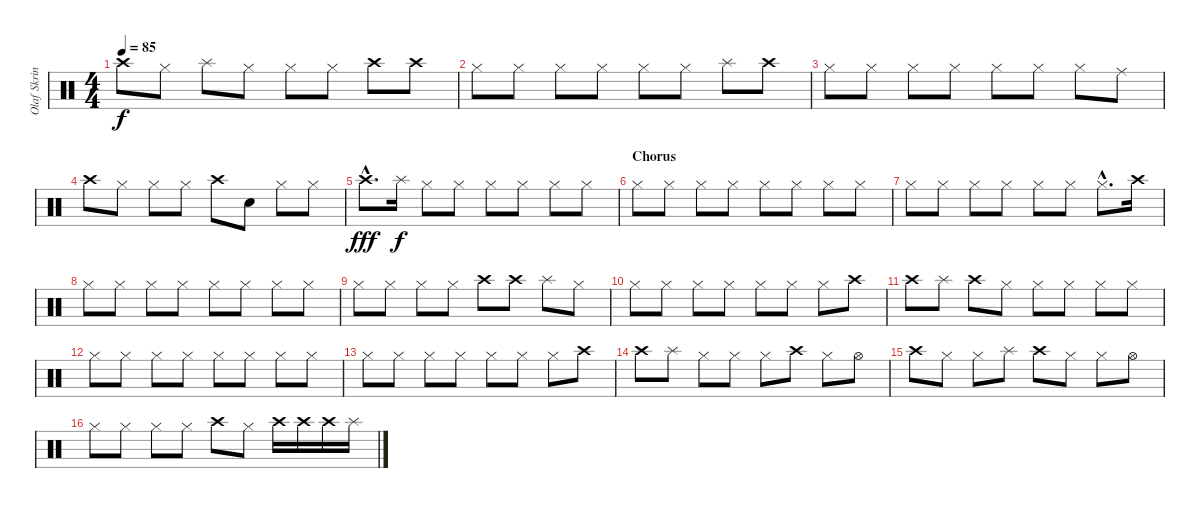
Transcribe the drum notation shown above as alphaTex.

\track ("Olaf Skrinde (Drums)" "Olaf Skrin") {instrument percussion}
\staff {score}
\articulation defaults
\ts (4 4)
\tempo 85
\clef neutral
\ks c "Crash high (hit)".8{dy f} "Hi-Hat (closed)".8 "Splash (hit)".8 "Hi-Hat (closed)".8 "Hi-Hat (closed)".8 "Hi-Hat (closed)".8 "Crash high (hit)".8 "Crash high (hit)".8
|
"Hi-Hat (closed)".8 "Hi-Hat (closed)".8 "Hi-Hat (closed)".8 "Hi-Hat (closed)".8 "Hi-Hat (closed)".8 "Hi-Hat (closed)".8 "Splash (hit)".8 "Crash high (hit)".8 |
"Hi-Hat (closed)".8 "Hi-Hat (closed)".8 "Hi-Hat (closed)".8 "Hi-Hat (closed)".8 "Hi-Hat (closed)".8 "Hi-Hat (closed)".8 "Hi-Hat (closed)".8 "Ride (middle)".8 |
"Crash high (hit)".8 "Hi-Hat (closed)".8 "Hi-Hat (closed)".8 "Hi-Hat (closed)".8 "Crash high (hit)".8 "Hand Clap (hit)".8 "Hi-Hat (closed)".8 "Hi-Hat (closed)".8 |
"Crash high (hit)"{hac}.8{d dy fff} "Splash (hit)".16{dy f} "Hi-Hat (closed)".8 "Hi-Hat (closed)".8 "Hi-Hat (closed)".8 "Hi-Hat (closed)".8 "Hi-Hat (closed)".8 "Hi-Hat (closed)".8 |
\section ("" "Chorus")
"Hi-Hat (closed)".8 "Hi-Hat (closed)".8 "Hi-Hat (closed)".8 "Hi-Hat (closed)".8 "Hi-Hat (closed)".8 "Hi-Hat (closed)".8 "Hi-Hat (closed)".8 "Hi-Hat (closed)".8 |
"Hi-Hat (closed)".8 "Hi-Hat (closed)".8 "Hi-Hat (closed)".8 "Hi-Hat (closed)".8 "Hi-Hat (closed)".8 "Hi-Hat (closed)".8 "Hi-Hat (closed)"{hac}.8{d} "Crash high (hit)".16 |
"Hi-Hat (closed)".8 "Hi-Hat (closed)".8 "Hi-Hat (closed)".8 "Hi-Hat (closed)".8 "Hi-Hat (closed)".8 "Hi-Hat (closed)".8 "Hi-Hat (closed)".8 "Hi-Hat (closed)".8 |
"Hi-Hat (closed)".8 "Hi-Hat (closed)".8 "Hi-Hat (closed)".8 "Hi-Hat (closed)".8 "Crash high (hit)".8 "Crash high (hit)".8 "Splash (hit)".8 "Hi-Hat (closed)".8 |
"Hi-Hat (closed)".8 "Hi-Hat (closed)".8 "Hi-Hat (closed)".8 "Hi-Hat (closed)".8 "Hi-Hat (closed)".8 "Hi-Hat (closed)".8 "Hi-Hat (closed)".8 "Crash high (hit)".8 |
"Crash high (hit)".8 "Splash (hit)".8 "Crash high (hit)".8 "Hi-Hat (closed)".8 "Hi-Hat (closed)".8 "Hi-Hat (closed)".8 "Hi-Hat (closed)".8 "Hi-Hat (closed)".8 |
"Hi-Hat (closed)".8 "Hi-Hat (closed)".8 "Hi-Hat (closed)".8 "Hi-Hat (closed)".8 "Hi-Hat (closed)".8 "Hi-Hat (closed)".8 "Hi-Hat (closed)".8 "Hi-Hat (closed)".8 |
"Hi-Hat (closed)".8 "Hi-Hat (closed)".8 "Hi-Hat (closed)".8 "Hi-Hat (closed)".8 "Hi-Hat (closed)".8 "Hi-Hat (closed)".8 "Hi-Hat (closed)".8 "Crash high (hit)".8 |
"Crash high (hit)".8 "Splash (hit)".8 "Hi-Hat (closed)".8 "Hi-Hat (closed)".8 "Hi-Hat (closed)".8 "Crash high (hit)".8 "Hi-Hat (closed)".8 "Hi-Hat (open)".8 |
"Crash high (hit)".8 "Hi-Hat (closed)".8 "Hi-Hat (closed)".8 "Splash (hit)".8 "Crash high (hit)".8 "Hi-Hat (closed)".8 "Hi-Hat (closed)".8 "Hi-Hat (open)".8 |
"Hi-Hat (closed)".8 "Hi-Hat (closed)".8 "Hi-Hat (closed)".8 "Hi-Hat (closed)".8 "Crash high (hit)".8 "Hi-Hat (closed)".8 "Crash high (hit)".16 "Crash high (hit)".16 "Crash high (hit)".16 "Splash (hit)".16
